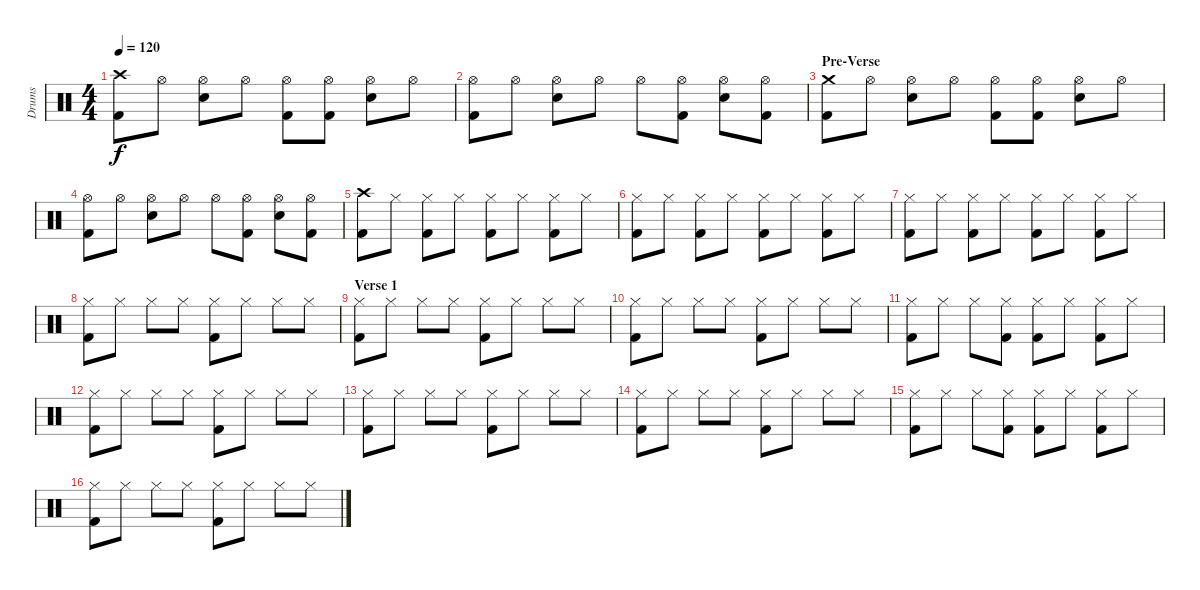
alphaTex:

\track ("Drums" "Drums") {instrument percussion}
\staff {score}
\articulation defaults
\ts (4 4)
\tempo 120
\clef neutral
\ks c
("Kick (hit) 2" "Crash high (hit)").8{dy f} "Hi-Hat (open)".8 ("Snare (hit) 2" "Hi-Hat (open)").8 "Hi-Hat (open)".8 ("Kick (hit) 2" "Hi-Hat (open)").8 ("Kick (hit) 2" "Hi-Hat (open)").8 ("Snare (hit) 2" "Hi-Hat (open)").8 "Hi-Hat (open)".8 |
("Kick (hit) 2" "Hi-Hat (open)").8 "Hi-Hat (open)".8 ("Snare (hit) 2" "Hi-Hat (open)").8 "Hi-Hat (open)".8 "Hi-Hat (open)".8 ("Kick (hit) 2" "Hi-Hat (open)").8 ("Snare (hit) 2" "Hi-Hat (open)").8 ("Kick (hit) 2" "Hi-Hat (open)").8 |
\section ("" "Pre-Verse")
("Kick (hit) 2" "Crash medium (hit)").8 "Hi-Hat (open)".8 ("Snare (hit) 2" "Hi-Hat (open)").8 "Hi-Hat (open)".8 ("Kick (hit) 2" "Hi-Hat (open)").8 ("Kick (hit) 2" "Hi-Hat (open)").8 ("Snare (hit) 2" "Hi-Hat (open)").8 "Hi-Hat (open)".8 |
("Kick (hit) 2" "Hi-Hat (open)").8 "Hi-Hat (open)".8 ("Snare (hit) 2" "Hi-Hat (open)").8 "Hi-Hat (open)".8 "Hi-Hat (open)".8 ("Kick (hit) 2" "Hi-Hat (open)").8 ("Snare (hit) 2" "Hi-Hat (open)").8 ("Kick (hit) 2" "Hi-Hat (open)").8 |
("Kick (hit) 2" "Crash high (hit)").8 "Hi-Hat (closed)".8 ("Kick (hit) 2" "Hi-Hat (closed)").8 "Hi-Hat (closed)".8 ("Kick (hit) 2" "Hi-Hat (closed)").8 "Hi-Hat (closed)".8 ("Kick (hit) 2" "Hi-Hat (closed)").8 "Hi-Hat (closed)".8 |
("Kick (hit) 2" "Hi-Hat (closed)").8 "Hi-Hat (closed)".8 ("Kick (hit) 2" "Hi-Hat (closed)").8 "Hi-Hat (closed)".8 ("Kick (hit) 2" "Hi-Hat (closed)").8 "Hi-Hat (closed)".8 ("Kick (hit) 2" "Hi-Hat (closed)").8 "Hi-Hat (closed)".8 |
("Kick (hit) 2" "Hi-Hat (closed)").8 "Hi-Hat (closed)".8 ("Kick (hit) 2" "Hi-Hat (closed)").8 "Hi-Hat (closed)".8 ("Kick (hit) 2" "Hi-Hat (closed)").8 "Hi-Hat (closed)".8 ("Kick (hit) 2" "Hi-Hat (closed)").8 "Hi-Hat (closed)".8 |
("Kick (hit) 2" "Hi-Hat (closed)").8 "Hi-Hat (closed)".8 "Hi-Hat (closed)".8 "Hi-Hat (closed)".8 ("Kick (hit) 2" "Hi-Hat (closed)").8 "Hi-Hat (closed)".8 "Hi-Hat (closed)".8 "Hi-Hat (closed)".8 |
\section ("" "Verse 1")
("Kick (hit) 2" "Hi-Hat (closed)").8 "Hi-Hat (closed)".8 "Hi-Hat (closed)".8 "Hi-Hat (closed)".8 ("Kick (hit) 2" "Hi-Hat (closed)").8 "Hi-Hat (closed)".8 "Hi-Hat (closed)".8 "Hi-Hat (closed)".8 |
("Kick (hit) 2" "Hi-Hat (closed)").8 "Hi-Hat (closed)".8 "Hi-Hat (closed)".8 "Hi-Hat (closed)".8 ("Kick (hit) 2" "Hi-Hat (closed)").8 "Hi-Hat (closed)".8 "Hi-Hat (closed)".8 "Hi-Hat (closed)".8 |
("Kick (hit) 2" "Hi-Hat (closed)").8 "Hi-Hat (closed)".8 "Hi-Hat (closed)".8 ("Kick (hit) 2" "Hi-Hat (closed)").8 ("Kick (hit) 2" "Hi-Hat (closed)").8 "Hi-Hat (closed)".8 ("Kick (hit) 2" "Hi-Hat (closed)").8 "Hi-Hat (closed)".8 |
("Kick (hit) 2" "Hi-Hat (closed)").8 "Hi-Hat (closed)".8 "Hi-Hat (closed)".8 "Hi-Hat (closed)".8 ("Kick (hit) 2" "Hi-Hat (closed)").8 "Hi-Hat (closed)".8 "Hi-Hat (closed)".8 "Hi-Hat (closed)".8 |
("Kick (hit) 2" "Hi-Hat (closed)").8 "Hi-Hat (closed)".8 "Hi-Hat (closed)".8 "Hi-Hat (closed)".8 ("Kick (hit) 2" "Hi-Hat (closed)").8 "Hi-Hat (closed)".8 "Hi-Hat (closed)".8 "Hi-Hat (closed)".8 |
("Kick (hit) 2" "Hi-Hat (closed)").8 "Hi-Hat (closed)".8 "Hi-Hat (closed)".8 "Hi-Hat (closed)".8 ("Kick (hit) 2" "Hi-Hat (closed)").8 "Hi-Hat (closed)".8 "Hi-Hat (closed)".8 "Hi-Hat (closed)".8 |
("Kick (hit) 2" "Hi-Hat (closed)").8 "Hi-Hat (closed)".8 "Hi-Hat (closed)".8 ("Kick (hit) 2" "Hi-Hat (closed)").8 ("Kick (hit) 2" "Hi-Hat (closed)").8 "Hi-Hat (closed)".8 ("Kick (hit) 2" "Hi-Hat (closed)").8 "Hi-Hat (closed)".8 |
("Kick (hit) 2" "Hi-Hat (closed)").8 "Hi-Hat (closed)".8 "Hi-Hat (closed)".8 "Hi-Hat (closed)".8 ("Kick (hit) 2" "Hi-Hat (closed)").8 "Hi-Hat (closed)".8 "Hi-Hat (closed)".8 "Hi-Hat (closed)".8
